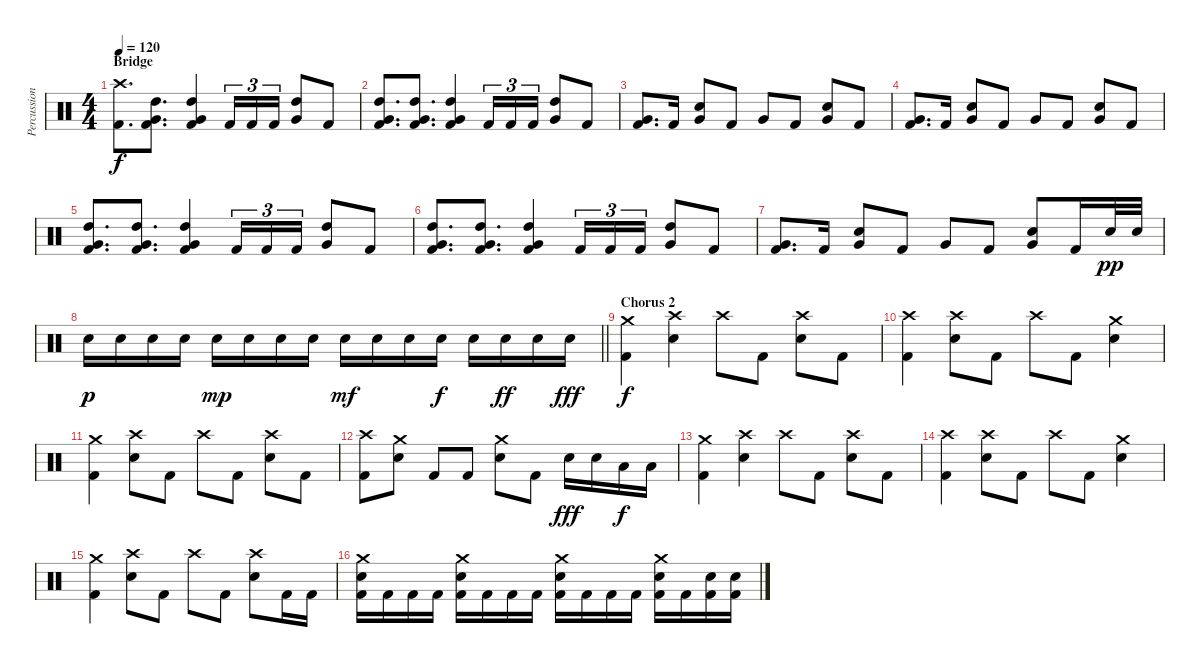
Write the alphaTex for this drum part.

\track ("Percussion" "Percussion") {instrument percussion}
\staff {score}
\articulation defaults
\ts (4 4)
\section ("" "Bridge")
\tempo 120
\clef neutral
\ks c
("Crash high (hit)" "Kick (hit) 2").8{d dy f} ("High Tom (hit)" "Very Low Tom (hit)" "Kick (hit) 2").8{d} ("High Tom (hit)" "Very Low Tom (hit)" "Kick (hit) 2").4 "Kick (hit) 2".16{tu (3 2)} "Kick (hit) 2".16{tu (3 2)} "Kick (hit) 2".16{tu (3 2)} ("High Tom (hit)" "Very Low Tom (hit)").8 "Kick (hit) 2".8 |
("High Tom (hit)" "Very Low Tom (hit)" "Kick (hit) 2").8{d} ("High Tom (hit)" "Very Low Tom (hit)" "Kick (hit) 2").8{d} ("High Tom (hit)" "Very Low Tom (hit)" "Kick (hit) 2").4 "Kick (hit) 2".16{tu (3 2)} "Kick (hit) 2".16{tu (3 2)} "Kick (hit) 2".16{tu (3 2)} ("High Tom (hit)" "Very Low Tom (hit)").8 "Kick (hit) 2".8 |
("Very Low Tom (hit)" "Kick (hit) 2").8{d} "Kick (hit) 2".16 ("Very Low Tom (hit)" "Snare (hit) 2").8 "Kick (hit) 2".8 "Very Low Tom (hit)".8 "Kick (hit) 2".8 ("Very Low Tom (hit)" "Snare (hit) 2").8 "Kick (hit) 2".8 |
("Very Low Tom (hit)" "Kick (hit) 2").8{d} "Kick (hit) 2".16 ("Very Low Tom (hit)" "Snare (hit) 2").8 "Kick (hit) 2".8 "Very Low Tom (hit)".8 "Kick (hit) 2".8 ("Very Low Tom (hit)" "Snare (hit) 2").8 "Kick (hit) 2".8 |
("High Tom (hit)" "Very Low Tom (hit)" "Kick (hit) 2").8{d} ("High Tom (hit)" "Very Low Tom (hit)" "Kick (hit) 2").8{d} ("High Tom (hit)" "Very Low Tom (hit)" "Kick (hit) 2").4 "Kick (hit) 2".16{tu (3 2)} "Kick (hit) 2".16{tu (3 2)} "Kick (hit) 2".16{tu (3 2)} ("High Tom (hit)" "Very Low Tom (hit)").8 "Kick (hit) 2".8 |
("High Tom (hit)" "Very Low Tom (hit)" "Kick (hit) 2").8{d} ("High Tom (hit)" "Very Low Tom (hit)" "Kick (hit) 2").8{d} ("High Tom (hit)" "Very Low Tom (hit)" "Kick (hit) 2").4 "Kick (hit) 2".16{tu (3 2)} "Kick (hit) 2".16{tu (3 2)} "Kick (hit) 2".16{tu (3 2)} ("High Tom (hit)" "Very Low Tom (hit)").8 "Kick (hit) 2".8 |
("Very Low Tom (hit)" "Kick (hit) 2").8{d} "Kick (hit) 2".16 ("Very Low Tom (hit)" "Snare (hit) 2").8 "Kick (hit) 2".8 "Very Low Tom (hit)".8 "Kick (hit) 2".8 ("Very Low Tom (hit)" "Snare (hit) 2").8 "Kick (hit) 2".16 "Snare (hit) 2".32{dy pp} "Snare (hit) 2".32 |
\barLineRight lightlight "Snare (hit) 2".16{dy p} "Snare (hit) 2".16 "Snare (hit) 2".16 "Snare (hit) 2".16 "Snare (hit) 2".16{dy mp} "Snare (hit) 2".16 "Snare (hit) 2".16 "Snare (hit) 2".16 "Snare (hit) 2".16{dy mf} "Snare (hit) 2".16 "Snare (hit) 2".16 "Snare (hit) 2".16{dy f} "Snare (hit) 2".16 "Snare (hit) 2".16{dy ff} "Snare (hit) 2".16 "Snare (hit) 2".16{dy fff}
|
\section ("" "Chorus 2")
("Crash medium (hit)" "Kick (hit) 2").4{dy f} ("Crash high (hit)" "Snare (hit) 2").4 "Crash high (hit)".8 "Kick (hit) 2".8 ("Crash high (hit)" "Snare (hit) 2").8 "Kick (hit) 2".8 |
("Crash high (hit)" "Kick (hit) 2").4 ("Crash high (hit)" "Snare (hit) 2").8 "Kick (hit) 2".8 "Crash high (hit)".8 "Kick (hit) 2".8 ("Crash medium (hit)" "Snare (hit) 2").4 |
("Crash medium (hit)" "Kick (hit) 2").4 ("Crash high (hit)" "Snare (hit) 2").8 "Kick (hit) 2".8 "Crash high (hit)".8 "Kick (hit) 2".8 ("Crash high (hit)" "Snare (hit) 2").8 "Kick (hit) 2".8 |
("Crash high (hit)" "Kick (hit) 2").8 ("Crash medium (hit)" "Snare (hit) 2").8 "Kick (hit) 2".8 "Kick (hit) 2".8 ("Crash medium (hit)" "Snare (hit) 2").8 "Kick (hit) 2".8 "Snare (hit) 2".16{dy fff} "Snare (hit) 2".16 "Low Tom (hit)".16{dy f} "Low Tom (hit)".16 |
("Crash medium (hit)" "Kick (hit) 2").4 ("Crash high (hit)" "Snare (hit) 2").4 "Crash high (hit)".8 "Kick (hit) 2".8 ("Crash high (hit)" "Snare (hit) 2").8 "Kick (hit) 2".8 |
("Crash high (hit)" "Kick (hit) 2").4 ("Crash high (hit)" "Snare (hit) 2").8 "Kick (hit) 2".8 "Crash high (hit)".8 "Kick (hit) 2".8 ("Crash medium (hit)" "Snare (hit) 2").4 |
("Crash medium (hit)" "Kick (hit) 2").4 ("Crash high (hit)" "Snare (hit) 2").8 "Kick (hit) 2".8 "Crash high (hit)".8 "Kick (hit) 2".8 ("Crash high (hit)" "Snare (hit) 2").8 "Kick (hit) 2".16 "Kick (hit) 2".16 |
("Crash medium (hit)" "Snare (hit) 2" "Kick (hit) 2").16 "Kick (hit) 2".16 "Kick (hit) 2".16 "Kick (hit) 2".16 ("Crash medium (hit)" "Snare (hit) 2" "Kick (hit) 2").16 "Kick (hit) 2".16 "Kick (hit) 2".16 "Kick (hit) 2".16 ("Crash medium (hit)" "Snare (hit) 2" "Kick (hit) 2").16 "Kick (hit) 2".16 "Kick (hit) 2".16 "Kick (hit) 2".16 ("Crash medium (hit)" "Snare (hit) 2" "Kick (hit) 2").16 "Kick (hit) 2".16 ("Snare (hit) 2" "Kick (hit) 2").16 ("Snare (hit) 2" "Kick (hit) 2").16
